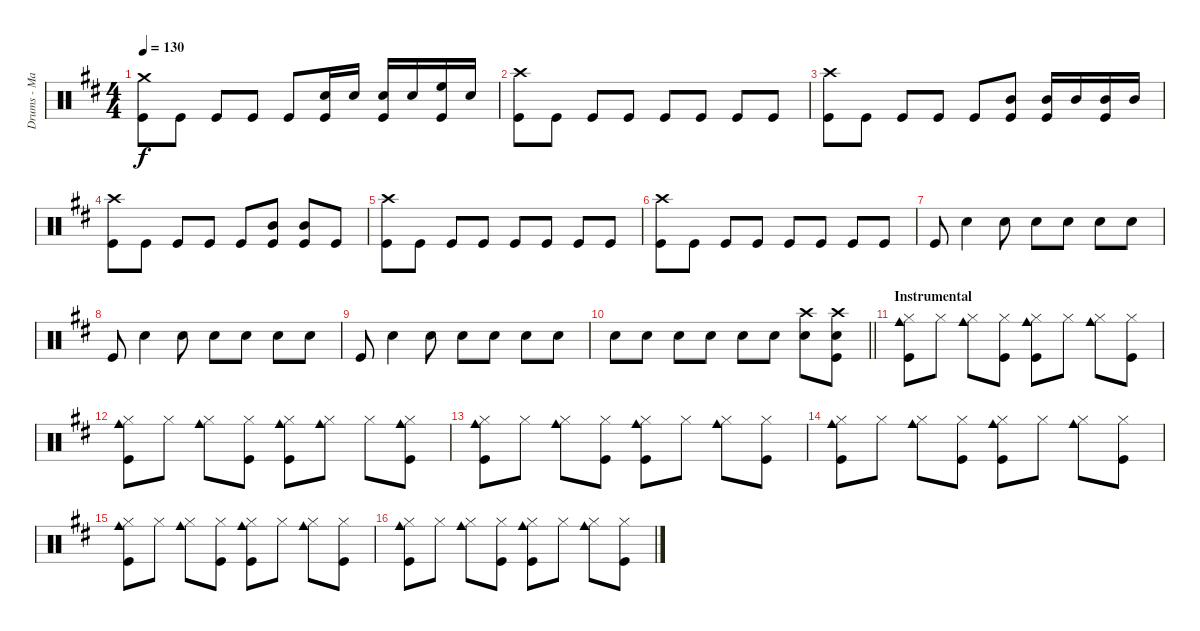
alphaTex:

\track ("Drums - Matt Helders" "Drums - Ma") {instrument percussion}
\staff {score}
\articulation defaults
\ts (4 4)
\tempo 130
\clef neutral
\ks d
("Crash medium (hit)" "Kick (hit)").8{dy f} "Kick (hit)".8 "Kick (hit)".8 "Kick (hit)".8 "Kick (hit)".8 ("Snare (hit) 2" "Kick (hit)").16 "Snare (hit) 2".16 ("Snare (hit) 2" "Kick (hit)").16 "Snare (hit) 2".16 ("High Floor Tom (hit)" "Kick (hit)").16 "Snare (hit) 2".16 |
("Crash high (hit)" "Kick (hit)").8 "Kick (hit)".8 "Kick (hit)".8 "Kick (hit)".8 "Kick (hit)".8 "Kick (hit)".8 "Kick (hit)".8 "Kick (hit)".8 |
("Crash high (hit)" "Kick (hit)").8 "Kick (hit)".8 "Kick (hit)".8 "Kick (hit)".8 "Kick (hit)".8 ("Mid Tom (hit)" "Kick (hit)").8 ("Mid Tom (hit)" "Kick (hit)").16 "Mid Tom (hit)".16 ("Mid Tom (hit)" "Kick (hit)").16 "Mid Tom (hit)".16 |
("Crash high (hit)" "Kick (hit)").8 "Kick (hit)".8 "Kick (hit)".8 "Kick (hit)".8 "Kick (hit)".8 ("Mid Tom (hit)" "Kick (hit)").8 ("Mid Tom (hit)" "Kick (hit)").8 "Kick (hit)".8 |
("Crash high (hit)" "Kick (hit)").8 "Kick (hit)".8 "Kick (hit)".8 "Kick (hit)".8 "Kick (hit)".8 "Kick (hit)".8 "Kick (hit)".8 "Kick (hit)".8 |
("Crash high (hit)" "Kick (hit)").8 "Kick (hit)".8 "Kick (hit)".8 "Kick (hit)".8 "Kick (hit)".8 "Kick (hit)".8 "Kick (hit)".8 "Kick (hit)".8 |
"Kick (hit)".8 "Snare (hit) 2".4 "Snare (hit) 2".8 "Snare (hit) 2".8 "Snare (hit) 2".8 "Snare (hit) 2".8 "Snare (hit) 2".8 |
"Kick (hit)".8 "Snare (hit) 2".4 "Snare (hit) 2".8 "Snare (hit) 2".8 "Snare (hit) 2".8 "Snare (hit) 2".8 "Snare (hit) 2".8 |
"Kick (hit)".8 "Snare (hit) 2".4 "Snare (hit) 2".8 "Snare (hit) 2".8 "Snare (hit) 2".8 "Snare (hit) 2".8 "Snare (hit) 2".8 |
\barLineRight lightlight "Snare (hit) 2".8 "Snare (hit) 2".8 "Snare (hit) 2".8 "Snare (hit) 2".8 "Snare (hit) 2".8 "Snare (hit) 2".8
("Crash high (hit)" "Snare (hit) 2").8 ("Crash high (hit)" "Snare (hit) 2" "Kick (hit)").8 |
\section ("" "Instrumental")
("Hi-Hat (closed)" "Cowbell medium (hit)" "Kick (hit)").8 "Hi-Hat (closed)".8 ("Hi-Hat (closed)" "Cowbell medium (hit)").8 ("Hi-Hat (closed)" "Kick (hit)").8 ("Hi-Hat (closed)" "Cowbell medium (hit)" "Kick (hit)").8 "Hi-Hat (closed)".8 ("Hi-Hat (closed)" "Cowbell medium (hit)").8 ("Hi-Hat (closed)" "Kick (hit)").8 |
("Hi-Hat (closed)" "Cowbell medium (hit)" "Kick (hit)").8 "Hi-Hat (closed)".8 ("Hi-Hat (closed)" "Cowbell medium (hit)").8 ("Hi-Hat (closed)" "Kick (hit)").8 ("Hi-Hat (closed)" "Cowbell medium (hit)" "Kick (hit)").8 ("Hi-Hat (closed)" "Cowbell medium (hit)").8 "Hi-Hat (closed)".8 ("Hi-Hat (closed)" "Cowbell medium (hit)" "Kick (hit)").8 |
("Hi-Hat (closed)" "Cowbell medium (hit)" "Kick (hit)").8 "Hi-Hat (closed)".8 ("Hi-Hat (closed)" "Cowbell medium (hit)").8 ("Hi-Hat (closed)" "Kick (hit)").8 ("Hi-Hat (closed)" "Cowbell medium (hit)" "Kick (hit)").8 "Hi-Hat (closed)".8 ("Hi-Hat (closed)" "Cowbell medium (hit)").8 ("Hi-Hat (closed)" "Kick (hit)").8 |
("Hi-Hat (closed)" "Cowbell medium (hit)" "Kick (hit)").8 "Hi-Hat (closed)".8 ("Hi-Hat (closed)" "Cowbell medium (hit)").8 ("Hi-Hat (closed)" "Kick (hit)").8 ("Hi-Hat (closed)" "Cowbell medium (hit)" "Kick (hit)").8 "Hi-Hat (closed)".8 ("Hi-Hat (closed)" "Cowbell medium (hit)").8 ("Hi-Hat (closed)" "Kick (hit)").8 |
("Hi-Hat (closed)" "Cowbell medium (hit)" "Kick (hit)").8 "Hi-Hat (closed)".8 ("Hi-Hat (closed)" "Cowbell medium (hit)").8 ("Hi-Hat (closed)" "Kick (hit)").8 ("Hi-Hat (closed)" "Cowbell medium (hit)" "Kick (hit)").8 "Hi-Hat (closed)".8 ("Hi-Hat (closed)" "Cowbell medium (hit)").8 ("Hi-Hat (closed)" "Kick (hit)").8 |
("Hi-Hat (closed)" "Cowbell medium (hit)" "Kick (hit)").8 "Hi-Hat (closed)".8 ("Hi-Hat (closed)" "Cowbell medium (hit)").8 ("Hi-Hat (closed)" "Kick (hit)").8 ("Hi-Hat (closed)" "Cowbell medium (hit)" "Kick (hit)").8 "Hi-Hat (closed)".8 ("Hi-Hat (closed)" "Cowbell medium (hit)").8 ("Hi-Hat (closed)" "Kick (hit)").8
